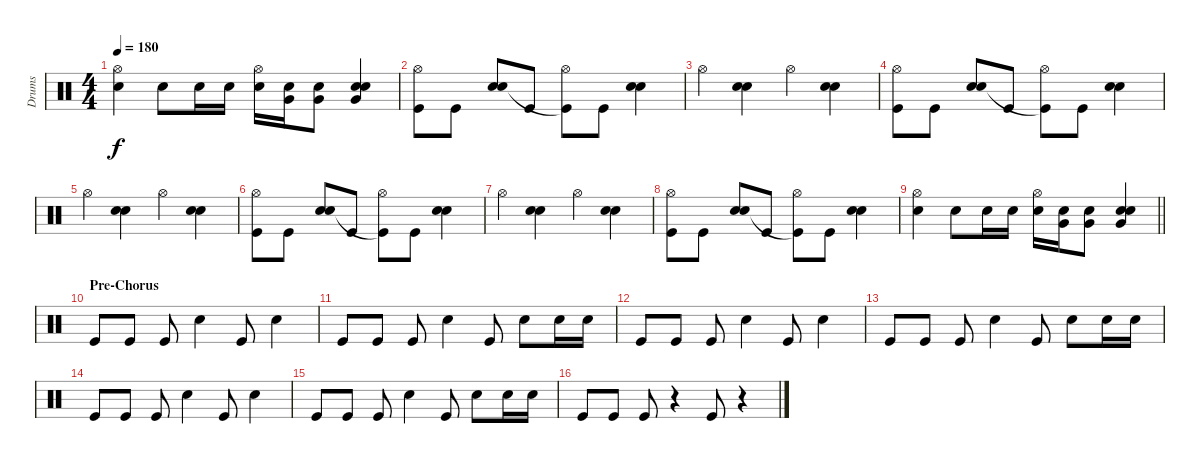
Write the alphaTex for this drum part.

\track ("Drums" "Drums") {instrument percussion}
\staff {score}
\articulation defaults
\ts (4 4)
\tempo 180
\clef neutral
\ks c
("Hi-Hat (open)" "Electric Snare (hit)").4{dy f} "Snare (hit) 2".8 "Snare (hit) 2".16 "Snare (hit) 2".16 ("Hi-Hat (open)" "Snare (hit) 2").16 ("Snare (hit) 2" "Very Low Tom (hit)").16 ("Snare (hit) 2" "Very Low Tom (hit)").8 ("Snare (hit) 2" "Electric Snare (hit)" "Very Low Tom (hit)").4 |
("Hi-Hat (open)" "Kick (hit)").8 "Kick (hit)".8 ("Snare (hit) 2" "Electric Snare (hit)").8 "Kick (hit)".8 ("Hi-Hat (open)" "Kick (hit)"{t}).8 "Kick (hit)".8 ("Snare (hit) 2" "Electric Snare (hit)").4 |
"Hi-Hat (open)".4 ("Snare (hit) 2" "Electric Snare (hit)").4 "Hi-Hat (open)".4 ("Snare (hit) 2" "Electric Snare (hit)").4 |
("Hi-Hat (open)" "Kick (hit)").8 "Kick (hit)".8 ("Snare (hit) 2" "Electric Snare (hit)").8 "Kick (hit)".8 ("Hi-Hat (open)" "Kick (hit)"{t}).8 "Kick (hit)".8 ("Snare (hit) 2" "Electric Snare (hit)").4 |
"Hi-Hat (open)".4 ("Snare (hit) 2" "Electric Snare (hit)").4 "Hi-Hat (open)".4 ("Snare (hit) 2" "Electric Snare (hit)").4 |
("Hi-Hat (open)" "Kick (hit)").8 "Kick (hit)".8 ("Snare (hit) 2" "Electric Snare (hit)").8 "Kick (hit)".8 ("Hi-Hat (open)" "Kick (hit)"{t}).8 "Kick (hit)".8 ("Snare (hit) 2" "Electric Snare (hit)").4 |
"Hi-Hat (open)".4 ("Snare (hit) 2" "Electric Snare (hit)").4 "Hi-Hat (open)".4 ("Snare (hit) 2" "Electric Snare (hit)").4 |
("Hi-Hat (open)" "Kick (hit)").8 "Kick (hit)".8 ("Snare (hit) 2" "Electric Snare (hit)").8 "Kick (hit)".8 ("Hi-Hat (open)" "Kick (hit)"{t}).8 "Kick (hit)".8 ("Snare (hit) 2" "Electric Snare (hit)").4 |
\barLineRight lightlight
("Hi-Hat (open)" "Electric Snare (hit)").4 "Snare (hit) 2".8 "Snare (hit) 2".16 "Snare (hit) 2".16 ("Hi-Hat (open)" "Snare (hit) 2").16 ("Snare (hit) 2" "Very Low Tom (hit)").16 ("Snare (hit) 2" "Very Low Tom (hit)").8 ("Snare (hit) 2" "Electric Snare (hit)" "Very Low Tom (hit)").4 |
\section ("" "Pre-Chorus")
"Kick (hit)".8 "Kick (hit)".8 "Kick (hit)".8 "Snare (hit) 2".4 "Kick (hit)".8 "Snare (hit) 2".4 |
"Kick (hit)".8 "Kick (hit)".8 "Kick (hit)".8 "Snare (hit) 2".4 "Kick (hit)".8 "Snare (hit) 2".8 "Snare (hit) 2".16 "Snare (hit) 2".16 |
"Kick (hit)".8 "Kick (hit)".8 "Kick (hit)".8 "Snare (hit) 2".4 "Kick (hit)".8 "Snare (hit) 2".4 |
"Kick (hit)".8 "Kick (hit)".8 "Kick (hit)".8 "Snare (hit) 2".4 "Kick (hit)".8 "Snare (hit) 2".8 "Snare (hit) 2".16 "Snare (hit) 2".16 |
"Kick (hit)".8 "Kick (hit)".8 "Kick (hit)".8 "Snare (hit) 2".4 "Kick (hit)".8 "Snare (hit) 2".4 |
"Kick (hit)".8 "Kick (hit)".8 "Kick (hit)".8 "Snare (hit) 2".4 "Kick (hit)".8 "Snare (hit) 2".8 "Snare (hit) 2".16 "Snare (hit) 2".16 |
"Kick (hit)".8 "Kick (hit)".8 "Kick (hit)".8 r.4 "Kick (hit)".8 r.4
